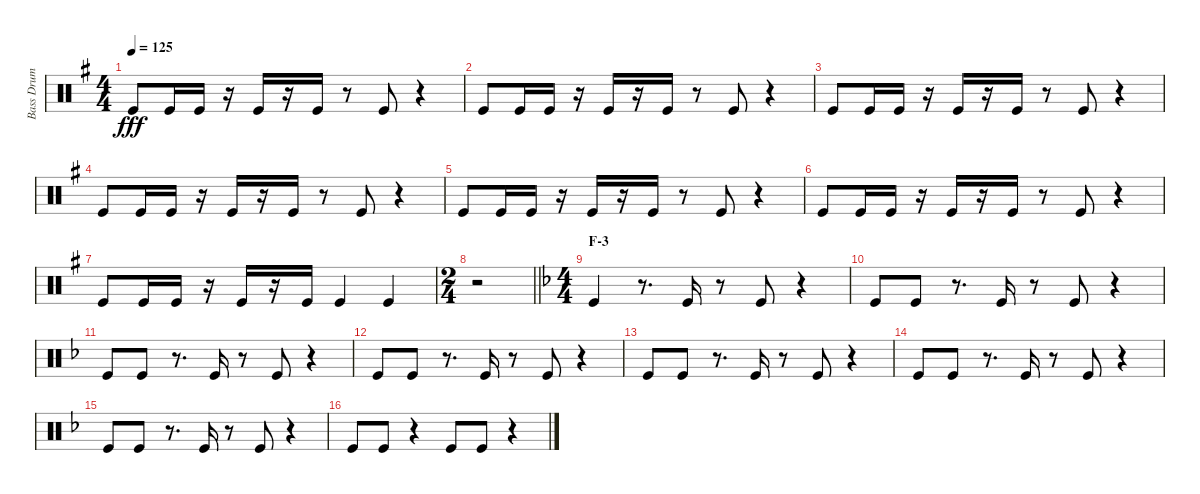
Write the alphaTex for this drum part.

\track ("Bass Drum" "Bass Drum") {instrument percussion}
\staff {score}
\articulation defaults
\ts (4 4)
\tempo 125
\clef neutral
\ks g "Kick (hit)".8{dy fff} "Kick (hit)".16 "Kick (hit)".16
r.16 "Kick (hit)".16 r.16 "Kick (hit)".16 r.8 "Kick (hit)".8 r.4 |
"Kick (hit)".8 "Kick (hit)".16 "Kick (hit)".16 r.16 "Kick (hit)".16 r.16 "Kick (hit)".16 r.8 "Kick (hit)".8 r.4 |
"Kick (hit)".8 "Kick (hit)".16 "Kick (hit)".16 r.16 "Kick (hit)".16 r.16 "Kick (hit)".16 r.8 "Kick (hit)".8 r.4 |
"Kick (hit)".8 "Kick (hit)".16 "Kick (hit)".16 r.16 "Kick (hit)".16 r.16 "Kick (hit)".16 r.8 "Kick (hit)".8 r.4 |
"Kick (hit)".8 "Kick (hit)".16 "Kick (hit)".16 r.16 "Kick (hit)".16 r.16 "Kick (hit)".16 r.8 "Kick (hit)".8 r.4 |
"Kick (hit)".8 "Kick (hit)".16 "Kick (hit)".16 r.16 "Kick (hit)".16 r.16 "Kick (hit)".16 r.8 "Kick (hit)".8 r.4 |
"Kick (hit)".8 "Kick (hit)".16 "Kick (hit)".16 r.16 "Kick (hit)".16 r.16 "Kick (hit)".16 "Kick (hit)".4 "Kick (hit)".4 |
\ts (2 4)
\barLineRight lightlight
r.2 |
\ts (4 4)
\section ("" "F-3")
\ks f "Kick (hit)".4
r.8{d} "Kick (hit)".16 r.8 "Kick (hit)".8 r.4 |
"Kick (hit)".8 "Kick (hit)".8 r.8{d} "Kick (hit)".16 r.8 "Kick (hit)".8 r.4 |
"Kick (hit)".8 "Kick (hit)".8 r.8{d} "Kick (hit)".16 r.8 "Kick (hit)".8 r.4 |
"Kick (hit)".8 "Kick (hit)".8 r.8{d} "Kick (hit)".16 r.8 "Kick (hit)".8 r.4 |
"Kick (hit)".8 "Kick (hit)".8 r.8{d} "Kick (hit)".16 r.8 "Kick (hit)".8 r.4 |
"Kick (hit)".8 "Kick (hit)".8 r.8{d} "Kick (hit)".16 r.8 "Kick (hit)".8 r.4 |
"Kick (hit)".8 "Kick (hit)".8 r.8{d} "Kick (hit)".16 r.8 "Kick (hit)".8 r.4 |
"Kick (hit)".8 "Kick (hit)".8 r.4 "Kick (hit)".8 "Kick (hit)".8 r.4
